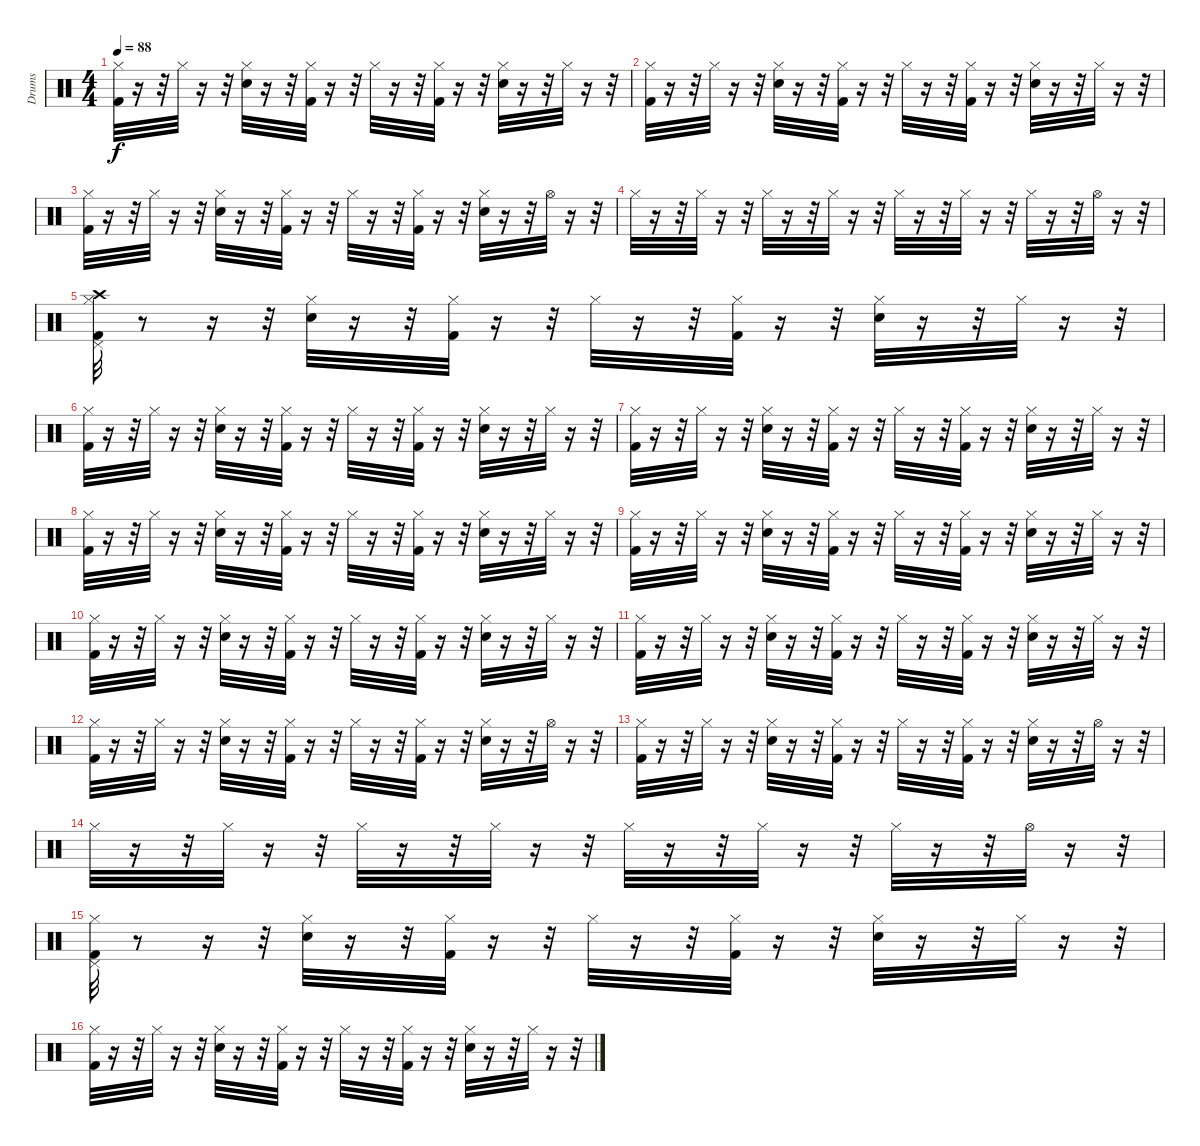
\track ("Drums" "Drums") {instrument percussion}
\staff {score}
\articulation defaults
\ts (4 4)
\tempo 88
\clef neutral
\ks c
("Hi-Hat (closed)" "Kick (hit) 2").32{dy f} r.16 r.32 "Hi-Hat (closed)".32 r.16 r.32 ("Hi-Hat (closed)" "Electric Snare (hit)").32 r.16 r.32 ("Kick (hit) 2" "Hi-Hat (closed)").32 r.16 r.32 "Hi-Hat (closed)".32 r.16 r.32 ("Kick (hit) 2" "Hi-Hat (closed)").32 r.16 r.32 ("Hi-Hat (closed)" "Electric Snare (hit)").32 r.16 r.32 "Hi-Hat (closed)".32 r.16 r.32 |
("Hi-Hat (closed)" "Kick (hit) 2").32 r.16 r.32 "Hi-Hat (closed)".32 r.16 r.32 ("Hi-Hat (closed)" "Electric Snare (hit)").32 r.16 r.32 ("Kick (hit) 2" "Hi-Hat (closed)").32 r.16 r.32 "Hi-Hat (closed)".32 r.16 r.32 ("Kick (hit) 2" "Hi-Hat (closed)").32 r.16 r.32 ("Hi-Hat (closed)" "Electric Snare (hit)").32 r.16 r.32 "Hi-Hat (closed)".32 r.16 r.32 |
("Hi-Hat (closed)" "Kick (hit) 2").32 r.16 r.32 "Hi-Hat (closed)".32 r.16 r.32 ("Hi-Hat (closed)" "Electric Snare (hit)").32 r.16 r.32 ("Kick (hit) 2" "Hi-Hat (closed)").32 r.16 r.32 "Hi-Hat (closed)".32 r.16 r.32 ("Kick (hit) 2" "Hi-Hat (closed)").32 r.16 r.32 ("Hi-Hat (closed)" "Electric Snare (hit)").32 r.16 r.32 "Hi-Hat (open)".32 r.16 r.32 |
"Hi-Hat (closed)".32 r.16 r.32 "Hi-Hat (closed)".32 r.16 r.32 "Hi-Hat (closed)".32 r.16 r.32 "Hi-Hat (closed)".32 r.16 r.32 "Hi-Hat (closed)".32 r.16 r.32 "Hi-Hat (closed)".32 r.16 r.32 "Hi-Hat (closed)".32 r.16 r.32 "Hi-Hat (open)".32 r.16 r.32 |
("Crash high (hit)" "Hi-Hat (closed)" "Pedal Hi-Hat (hit)" "Kick (hit) 2").32 r.8 r.16 r.32 ("Hi-Hat (closed)" "Electric Snare (hit)").32 r.16 r.32 ("Kick (hit) 2" "Hi-Hat (closed)").32 r.16 r.32 "Hi-Hat (closed)".32 r.16 r.32 ("Kick (hit) 2" "Hi-Hat (closed)").32 r.16 r.32 ("Hi-Hat (closed)" "Electric Snare (hit)").32 r.16 r.32 "Hi-Hat (closed)".32 r.16 r.32 |
("Hi-Hat (closed)" "Kick (hit) 2").32 r.16 r.32 "Hi-Hat (closed)".32 r.16 r.32 ("Hi-Hat (closed)" "Electric Snare (hit)").32 r.16 r.32 ("Kick (hit) 2" "Hi-Hat (closed)").32 r.16 r.32 "Hi-Hat (closed)".32 r.16 r.32 ("Kick (hit) 2" "Hi-Hat (closed)").32 r.16 r.32 ("Hi-Hat (closed)" "Electric Snare (hit)").32 r.16 r.32 "Hi-Hat (closed)".32 r.16 r.32 |
("Hi-Hat (closed)" "Kick (hit) 2").32 r.16 r.32 "Hi-Hat (closed)".32 r.16 r.32 ("Hi-Hat (closed)" "Electric Snare (hit)").32 r.16 r.32 ("Kick (hit) 2" "Hi-Hat (closed)").32 r.16 r.32 "Hi-Hat (closed)".32 r.16 r.32 ("Kick (hit) 2" "Hi-Hat (closed)").32 r.16 r.32 ("Hi-Hat (closed)" "Electric Snare (hit)").32 r.16 r.32 "Hi-Hat (closed)".32 r.16 r.32 |
("Hi-Hat (closed)" "Kick (hit) 2").32 r.16 r.32 "Hi-Hat (closed)".32 r.16 r.32 ("Hi-Hat (closed)" "Electric Snare (hit)").32 r.16 r.32 ("Kick (hit) 2" "Hi-Hat (closed)").32 r.16 r.32 "Hi-Hat (closed)".32 r.16 r.32 ("Kick (hit) 2" "Hi-Hat (closed)").32 r.16 r.32 ("Hi-Hat (closed)" "Electric Snare (hit)").32 r.16 r.32 "Hi-Hat (closed)".32 r.16 r.32 |
("Hi-Hat (closed)" "Kick (hit) 2").32 r.16 r.32 "Hi-Hat (closed)".32 r.16 r.32 ("Hi-Hat (closed)" "Electric Snare (hit)").32 r.16 r.32 ("Kick (hit) 2" "Hi-Hat (closed)").32 r.16 r.32 "Hi-Hat (closed)".32 r.16 r.32 ("Kick (hit) 2" "Hi-Hat (closed)").32 r.16 r.32 ("Hi-Hat (closed)" "Electric Snare (hit)").32 r.16 r.32 "Hi-Hat (closed)".32 r.16 r.32 |
("Hi-Hat (closed)" "Kick (hit) 2").32 r.16 r.32 "Hi-Hat (closed)".32 r.16 r.32 ("Hi-Hat (closed)" "Electric Snare (hit)").32 r.16 r.32 ("Kick (hit) 2" "Hi-Hat (closed)").32 r.16 r.32 "Hi-Hat (closed)".32 r.16 r.32 ("Kick (hit) 2" "Hi-Hat (closed)").32 r.16 r.32 ("Hi-Hat (closed)" "Electric Snare (hit)").32 r.16 r.32 "Hi-Hat (closed)".32 r.16 r.32 |
("Hi-Hat (closed)" "Kick (hit) 2").32 r.16 r.32 "Hi-Hat (closed)".32 r.16 r.32 ("Hi-Hat (closed)" "Electric Snare (hit)").32 r.16 r.32 ("Kick (hit) 2" "Hi-Hat (closed)").32 r.16 r.32 "Hi-Hat (closed)".32 r.16 r.32 ("Kick (hit) 2" "Hi-Hat (closed)").32 r.16 r.32 ("Hi-Hat (closed)" "Electric Snare (hit)").32 r.16 r.32 "Hi-Hat (closed)".32 r.16 r.32 |
("Hi-Hat (closed)" "Kick (hit) 2").32 r.16 r.32 "Hi-Hat (closed)".32 r.16 r.32 ("Hi-Hat (closed)" "Electric Snare (hit)").32 r.16 r.32 ("Kick (hit) 2" "Hi-Hat (closed)").32 r.16 r.32 "Hi-Hat (closed)".32 r.16 r.32 ("Kick (hit) 2" "Hi-Hat (closed)").32 r.16 r.32 ("Hi-Hat (closed)" "Electric Snare (hit)").32 r.16 r.32 "Hi-Hat (open)".32 r.16 r.32 |
("Hi-Hat (closed)" "Kick (hit) 2").32 r.16 r.32 "Hi-Hat (closed)".32 r.16 r.32 ("Hi-Hat (closed)" "Electric Snare (hit)").32 r.16 r.32 ("Kick (hit) 2" "Hi-Hat (closed)").32 r.16 r.32 "Hi-Hat (closed)".32 r.16 r.32 ("Kick (hit) 2" "Hi-Hat (closed)").32 r.16 r.32 ("Hi-Hat (closed)" "Electric Snare (hit)").32 r.16 r.32 "Hi-Hat (open)".32 r.16 r.32 |
"Hi-Hat (closed)".32 r.16 r.32 "Hi-Hat (closed)".32 r.16 r.32 "Hi-Hat (closed)".32 r.16 r.32 "Hi-Hat (closed)".32 r.16 r.32 "Hi-Hat (closed)".32 r.16 r.32 "Hi-Hat (closed)".32 r.16 r.32 "Hi-Hat (closed)".32 r.16 r.32 "Hi-Hat (open)".32 r.16 r.32 |
("Hi-Hat (closed)" "Pedal Hi-Hat (hit)" "Kick (hit) 2").32 r.8 r.16 r.32 ("Hi-Hat (closed)" "Electric Snare (hit)").32 r.16 r.32 ("Kick (hit) 2" "Hi-Hat (closed)").32 r.16 r.32 "Hi-Hat (closed)".32 r.16 r.32 ("Kick (hit) 2" "Hi-Hat (closed)").32 r.16 r.32 ("Hi-Hat (closed)" "Electric Snare (hit)").32 r.16 r.32 "Hi-Hat (closed)".32 r.16 r.32 |
("Hi-Hat (closed)" "Kick (hit) 2").32 r.16 r.32 "Hi-Hat (closed)".32 r.16 r.32 ("Hi-Hat (closed)" "Electric Snare (hit)").32 r.16 r.32 ("Kick (hit) 2" "Hi-Hat (closed)").32 r.16 r.32 "Hi-Hat (closed)".32 r.16 r.32 ("Kick (hit) 2" "Hi-Hat (closed)").32 r.16 r.32 ("Hi-Hat (closed)" "Electric Snare (hit)").32 r.16 r.32 "Hi-Hat (closed)".32 r.16 r.32
